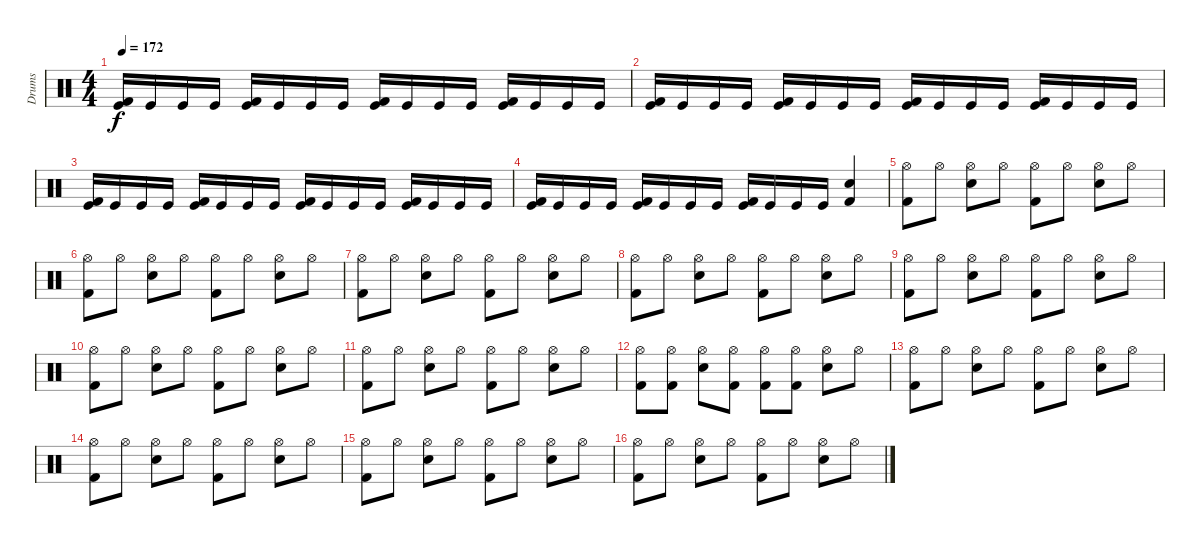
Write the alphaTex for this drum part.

\track ("Drums" "Drums") {instrument percussion}
\staff {score}
\articulation defaults
\ts (4 4)
\tempo 172
\clef neutral
\ks c
("Kick (hit) 2" "Kick (hit)").16{dy f} "Kick (hit)".16 "Kick (hit)".16 "Kick (hit)".16 ("Kick (hit) 2" "Kick (hit)").16 "Kick (hit)".16 "Kick (hit)".16 "Kick (hit)".16 ("Kick (hit) 2" "Kick (hit)").16 "Kick (hit)".16 "Kick (hit)".16 "Kick (hit)".16 ("Kick (hit) 2" "Kick (hit)").16 "Kick (hit)".16 "Kick (hit)".16 "Kick (hit)".16 |
("Kick (hit) 2" "Kick (hit)").16 "Kick (hit)".16 "Kick (hit)".16 "Kick (hit)".16 ("Kick (hit) 2" "Kick (hit)").16 "Kick (hit)".16 "Kick (hit)".16 "Kick (hit)".16 ("Kick (hit) 2" "Kick (hit)").16 "Kick (hit)".16 "Kick (hit)".16 "Kick (hit)".16 ("Kick (hit) 2" "Kick (hit)").16 "Kick (hit)".16 "Kick (hit)".16 "Kick (hit)".16 |
("Kick (hit) 2" "Kick (hit)").16 "Kick (hit)".16 "Kick (hit)".16 "Kick (hit)".16 ("Kick (hit) 2" "Kick (hit)").16 "Kick (hit)".16 "Kick (hit)".16 "Kick (hit)".16 ("Kick (hit) 2" "Kick (hit)").16 "Kick (hit)".16 "Kick (hit)".16 "Kick (hit)".16 ("Kick (hit) 2" "Kick (hit)").16 "Kick (hit)".16 "Kick (hit)".16 "Kick (hit)".16 |
("Kick (hit) 2" "Kick (hit)").16 "Kick (hit)".16 "Kick (hit)".16 "Kick (hit)".16 ("Kick (hit) 2" "Kick (hit)").16 "Kick (hit)".16 "Kick (hit)".16 "Kick (hit)".16 ("Kick (hit) 2" "Kick (hit)").16 "Kick (hit)".16 "Kick (hit)".16 "Kick (hit)".16 ("Kick (hit) 2" "Electric Snare (hit)").4 |
("Kick (hit) 2" "Hi-Hat (open)").8 "Hi-Hat (open)".8 ("Electric Snare (hit)" "Hi-Hat (open)").8 "Hi-Hat (open)".8 ("Kick (hit) 2" "Hi-Hat (open)").8 "Hi-Hat (open)".8 ("Electric Snare (hit)" "Hi-Hat (open)").8 "Hi-Hat (open)".8 |
("Kick (hit) 2" "Hi-Hat (open)").8 "Hi-Hat (open)".8 ("Electric Snare (hit)" "Hi-Hat (open)").8 "Hi-Hat (open)".8 ("Kick (hit) 2" "Hi-Hat (open)").8 "Hi-Hat (open)".8 ("Electric Snare (hit)" "Hi-Hat (open)").8 "Hi-Hat (open)".8 |
("Kick (hit) 2" "Hi-Hat (open)").8 "Hi-Hat (open)".8 ("Electric Snare (hit)" "Hi-Hat (open)").8 "Hi-Hat (open)".8 ("Kick (hit) 2" "Hi-Hat (open)").8 "Hi-Hat (open)".8 ("Electric Snare (hit)" "Hi-Hat (open)").8 "Hi-Hat (open)".8 |
("Kick (hit) 2" "Hi-Hat (open)").8 "Hi-Hat (open)".8 ("Electric Snare (hit)" "Hi-Hat (open)").8 "Hi-Hat (open)".8 ("Kick (hit) 2" "Hi-Hat (open)").8 "Hi-Hat (open)".8 ("Electric Snare (hit)" "Hi-Hat (open)").8 "Hi-Hat (open)".8 |
("Kick (hit) 2" "Hi-Hat (open)").8 "Hi-Hat (open)".8 ("Electric Snare (hit)" "Hi-Hat (open)").8 "Hi-Hat (open)".8 ("Kick (hit) 2" "Hi-Hat (open)").8 "Hi-Hat (open)".8 ("Electric Snare (hit)" "Hi-Hat (open)").8 "Hi-Hat (open)".8 |
("Kick (hit) 2" "Hi-Hat (open)").8 "Hi-Hat (open)".8 ("Electric Snare (hit)" "Hi-Hat (open)").8 "Hi-Hat (open)".8 ("Kick (hit) 2" "Hi-Hat (open)").8 "Hi-Hat (open)".8 ("Electric Snare (hit)" "Hi-Hat (open)").8 "Hi-Hat (open)".8 |
("Kick (hit) 2" "Hi-Hat (open)").8 "Hi-Hat (open)".8 ("Electric Snare (hit)" "Hi-Hat (open)").8 "Hi-Hat (open)".8 ("Kick (hit) 2" "Hi-Hat (open)").8 "Hi-Hat (open)".8 ("Electric Snare (hit)" "Hi-Hat (open)").8 "Hi-Hat (open)".8 |
("Kick (hit) 2" "Hi-Hat (open)").8 ("Kick (hit) 2" "Hi-Hat (open)").8 ("Electric Snare (hit)" "Hi-Hat (open)").8 ("Kick (hit) 2" "Hi-Hat (open)").8 ("Kick (hit) 2" "Hi-Hat (open)").8 ("Kick (hit) 2" "Hi-Hat (open)").8 ("Electric Snare (hit)" "Hi-Hat (open)").8 "Hi-Hat (open)".8 |
("Kick (hit) 2" "Hi-Hat (open)").8 "Hi-Hat (open)".8 ("Electric Snare (hit)" "Hi-Hat (open)").8 "Hi-Hat (open)".8 ("Kick (hit) 2" "Hi-Hat (open)").8 "Hi-Hat (open)".8 ("Electric Snare (hit)" "Hi-Hat (open)").8 "Hi-Hat (open)".8 |
("Kick (hit) 2" "Hi-Hat (open)").8 "Hi-Hat (open)".8 ("Electric Snare (hit)" "Hi-Hat (open)").8 "Hi-Hat (open)".8 ("Kick (hit) 2" "Hi-Hat (open)").8 "Hi-Hat (open)".8 ("Electric Snare (hit)" "Hi-Hat (open)").8 "Hi-Hat (open)".8 |
("Kick (hit) 2" "Hi-Hat (open)").8 "Hi-Hat (open)".8 ("Electric Snare (hit)" "Hi-Hat (open)").8 "Hi-Hat (open)".8 ("Kick (hit) 2" "Hi-Hat (open)").8 "Hi-Hat (open)".8 ("Electric Snare (hit)" "Hi-Hat (open)").8 "Hi-Hat (open)".8 |
("Kick (hit) 2" "Hi-Hat (open)").8 "Hi-Hat (open)".8 ("Electric Snare (hit)" "Hi-Hat (open)").8 "Hi-Hat (open)".8 ("Kick (hit) 2" "Hi-Hat (open)").8 "Hi-Hat (open)".8 ("Electric Snare (hit)" "Hi-Hat (open)").8 "Hi-Hat (open)".8
